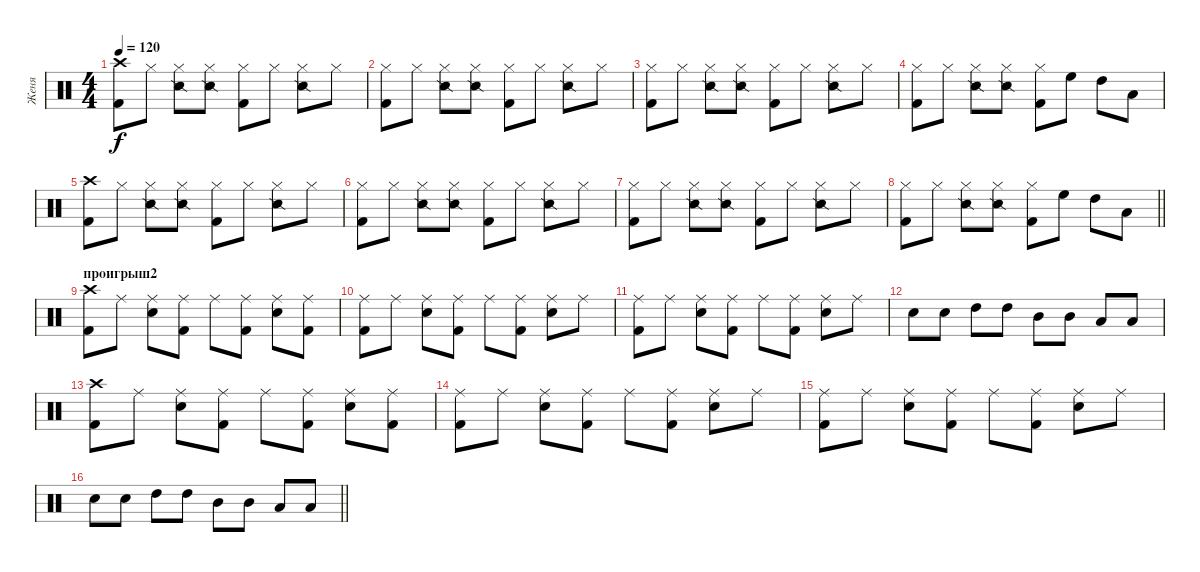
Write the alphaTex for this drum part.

\track ("Женя" "Женя") {instrument percussion}
\staff {score}
\articulation defaults
\ts (4 4)
\tempo 120
\clef neutral
\ks c
("Crash high (hit)" "Kick (hit) 2").8{dy f} "Hi-Hat (closed)".8 ("Hi-Hat (closed)" "Snare (side stick) 2").8 ("Hi-Hat (closed)" "Snare (side stick) 2").8 ("Hi-Hat (closed)" "Kick (hit) 2").8 "Hi-Hat (closed)".8 ("Hi-Hat (closed)" "Snare (side stick) 2").8 "Hi-Hat (closed)".8 |
("Hi-Hat (closed)" "Kick (hit) 2").8 "Hi-Hat (closed)".8 ("Hi-Hat (closed)" "Snare (side stick) 2").8 ("Hi-Hat (closed)" "Snare (side stick) 2").8 ("Hi-Hat (closed)" "Kick (hit) 2").8 "Hi-Hat (closed)".8 ("Hi-Hat (closed)" "Snare (side stick) 2").8 "Hi-Hat (closed)".8 |
("Hi-Hat (closed)" "Kick (hit) 2").8 "Hi-Hat (closed)".8 ("Hi-Hat (closed)" "Snare (side stick) 2").8 ("Hi-Hat (closed)" "Snare (side stick) 2").8 ("Hi-Hat (closed)" "Kick (hit) 2").8 "Hi-Hat (closed)".8 ("Hi-Hat (closed)" "Snare (side stick) 2").8 "Hi-Hat (closed)".8 |
("Hi-Hat (closed)" "Kick (hit) 2").8 "Hi-Hat (closed)".8 ("Hi-Hat (closed)" "Snare (side stick) 2").8 ("Hi-Hat (closed)" "Snare (side stick) 2").8 ("Hi-Hat (closed)" "Kick (hit) 2").8 "High Floor Tom (hit)".8 "High Tom (hit)".8 "Low Tom (hit)".8 |
("Crash high (hit)" "Kick (hit) 2").8 "Hi-Hat (closed)".8 ("Hi-Hat (closed)" "Snare (side stick) 2").8 ("Hi-Hat (closed)" "Snare (side stick) 2").8 ("Hi-Hat (closed)" "Kick (hit) 2").8 "Hi-Hat (closed)".8 ("Hi-Hat (closed)" "Snare (side stick) 2").8 "Hi-Hat (closed)".8 |
("Hi-Hat (closed)" "Kick (hit) 2").8 "Hi-Hat (closed)".8 ("Hi-Hat (closed)" "Snare (side stick) 2").8 ("Hi-Hat (closed)" "Snare (side stick) 2").8 ("Hi-Hat (closed)" "Kick (hit) 2").8 "Hi-Hat (closed)".8 ("Hi-Hat (closed)" "Snare (side stick) 2").8 "Hi-Hat (closed)".8 |
("Hi-Hat (closed)" "Kick (hit) 2").8 "Hi-Hat (closed)".8 ("Hi-Hat (closed)" "Snare (side stick) 2").8 ("Hi-Hat (closed)" "Snare (side stick) 2").8 ("Hi-Hat (closed)" "Kick (hit) 2").8 "Hi-Hat (closed)".8 ("Hi-Hat (closed)" "Snare (side stick) 2").8 "Hi-Hat (closed)".8 |
\barLineRight lightlight
("Hi-Hat (closed)" "Kick (hit) 2").8 "Hi-Hat (closed)".8 ("Hi-Hat (closed)" "Snare (side stick) 2").8 ("Hi-Hat (closed)" "Snare (side stick) 2").8 ("Hi-Hat (closed)" "Kick (hit) 2").8 "High Floor Tom (hit)".8 "High Tom (hit)".8 "Low Tom (hit)".8 |
\section ("" "проигрыш2")
("Crash high (hit)" "Kick (hit) 2").8 "Ride (middle)".8 ("Ride (middle)" "Snare (hit) 2").8 ("Ride (middle)" "Kick (hit) 2").8 "Ride (middle)".8 ("Ride (middle)" "Kick (hit) 2").8 ("Ride (middle)" "Snare (hit) 2").8 ("Ride (middle)" "Kick (hit) 2").8 |
("Ride (middle)" "Kick (hit) 2").8 "Ride (middle)".8 ("Ride (middle)" "Snare (hit) 2").8 ("Ride (middle)" "Kick (hit) 2").8 "Ride (middle)".8 ("Ride (middle)" "Kick (hit) 2").8 ("Ride (middle)" "Snare (hit) 2").8 "Ride (middle)".8 |
("Ride (middle)" "Kick (hit) 2").8 "Ride (middle)".8 ("Ride (middle)" "Snare (hit) 2").8 ("Ride (middle)" "Kick (hit) 2").8 "Ride (middle)".8 ("Ride (middle)" "Kick (hit) 2").8 ("Ride (middle)" "Snare (hit) 2").8 "Ride (middle)".8 |
"Snare (hit) 2".8 "Snare (hit) 2".8 "High Tom (hit)".8 "High Tom (hit)".8 "Mid Tom (hit)".8 "Mid Tom (hit)".8 "Low Tom (hit)".8 "Low Tom (hit)".8 |
("Crash high (hit)" "Kick (hit) 2").8 "Ride (middle)".8 ("Ride (middle)" "Snare (hit) 2").8 ("Ride (middle)" "Kick (hit) 2").8 "Ride (middle)".8 ("Ride (middle)" "Kick (hit) 2").8 ("Ride (middle)" "Snare (hit) 2").8 ("Ride (middle)" "Kick (hit) 2").8 |
("Ride (middle)" "Kick (hit) 2").8 "Ride (middle)".8 ("Ride (middle)" "Snare (hit) 2").8 ("Ride (middle)" "Kick (hit) 2").8 "Ride (middle)".8 ("Ride (middle)" "Kick (hit) 2").8 ("Ride (middle)" "Snare (hit) 2").8 "Ride (middle)".8 |
("Ride (middle)" "Kick (hit) 2").8 "Ride (middle)".8 ("Ride (middle)" "Snare (hit) 2").8 ("Ride (middle)" "Kick (hit) 2").8 "Ride (middle)".8 ("Ride (middle)" "Kick (hit) 2").8 ("Ride (middle)" "Snare (hit) 2").8 "Ride (middle)".8 |
\barLineRight lightlight "Snare (hit) 2".8 "Snare (hit) 2".8 "High Tom (hit)".8 "High Tom (hit)".8 "Mid Tom (hit)".8 "Mid Tom (hit)".8 "Low Tom (hit)".8 "Low Tom (hit)".8
